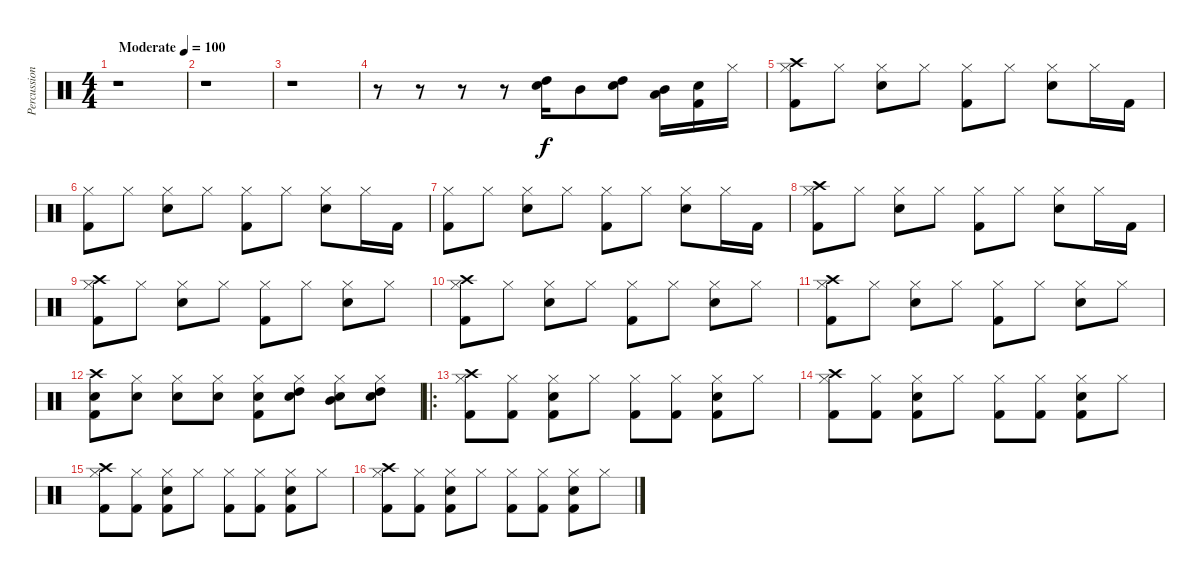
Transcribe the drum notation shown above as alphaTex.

\track ("Percussion" "Percussion") {instrument percussion}
\staff {score}
\articulation defaults
\ts (4 4)
\tempo (100 "Moderate")
\clef neutral
\ks c
r.1{dy f} |
r.1 |
r.1 |
r.8 r.8 r.8 r.8 ("High Tom (hit)" "Snare (hit) 2").16 "Mid Tom (hit)".8 ("High Tom (hit)" "Snare (hit) 2").8 ("Mid Tom (hit)" "Low Floor Tom (hit)").16 ("Kick (hit) 2" "Snare (hit) 2").16 "Hi-Hat (closed)".16 |
("Kick (hit) 2" "Hi-Hat (closed)" "Crash high (hit)").8 "Hi-Hat (closed)".8 ("Snare (hit) 2" "Hi-Hat (closed)").8 "Hi-Hat (closed)".8 ("Kick (hit) 2" "Hi-Hat (closed)").8 "Hi-Hat (closed)".8 ("Snare (hit) 2" "Hi-Hat (closed)").8 "Hi-Hat (closed)".16 "Kick (hit) 2".16 |
("Kick (hit) 2" "Hi-Hat (closed)").8 "Hi-Hat (closed)".8 ("Snare (hit) 2" "Hi-Hat (closed)").8 "Hi-Hat (closed)".8 ("Kick (hit) 2" "Hi-Hat (closed)").8 "Hi-Hat (closed)".8 ("Snare (hit) 2" "Hi-Hat (closed)").8 "Hi-Hat (closed)".16 "Kick (hit) 2".16 |
("Kick (hit) 2" "Hi-Hat (closed)").8 "Hi-Hat (closed)".8 ("Snare (hit) 2" "Hi-Hat (closed)").8 "Hi-Hat (closed)".8 ("Kick (hit) 2" "Hi-Hat (closed)").8 "Hi-Hat (closed)".8 ("Snare (hit) 2" "Hi-Hat (closed)").8 "Hi-Hat (closed)".16 "Kick (hit) 2".16 |
("Kick (hit) 2" "Hi-Hat (closed)" "Crash high (hit)").8 "Hi-Hat (closed)".8 ("Snare (hit) 2" "Hi-Hat (closed)").8 "Hi-Hat (closed)".8 ("Kick (hit) 2" "Hi-Hat (closed)").8 "Hi-Hat (closed)".8 ("Snare (hit) 2" "Hi-Hat (closed)").8 "Hi-Hat (closed)".16 "Kick (hit) 2".16 |
("Kick (hit) 2" "Hi-Hat (closed)" "Crash high (hit)").8 "Hi-Hat (closed)".8 ("Snare (hit) 2" "Hi-Hat (closed)").8 "Hi-Hat (closed)".8 ("Kick (hit) 2" "Hi-Hat (closed)").8 "Hi-Hat (closed)".8 ("Snare (hit) 2" "Hi-Hat (closed)").8 "Hi-Hat (closed)".8 |
("Kick (hit) 2" "Hi-Hat (closed)" "Crash high (hit)").8 "Hi-Hat (closed)".8 ("Snare (hit) 2" "Hi-Hat (closed)").8 "Hi-Hat (closed)".8 ("Kick (hit) 2" "Hi-Hat (closed)").8 "Hi-Hat (closed)".8 ("Snare (hit) 2" "Hi-Hat (closed)").8 "Hi-Hat (closed)".8 |
("Kick (hit) 2" "Hi-Hat (closed)" "Crash high (hit)").8 "Hi-Hat (closed)".8 ("Snare (hit) 2" "Hi-Hat (closed)").8 "Hi-Hat (closed)".8 ("Kick (hit) 2" "Hi-Hat (closed)").8 "Hi-Hat (closed)".8 ("Snare (hit) 2" "Hi-Hat (closed)").8 "Hi-Hat (closed)".8 |
("Kick (hit) 2" "Snare (hit) 2" "Crash high (hit)").8 ("Snare (hit) 2" "Hi-Hat (closed)").8 ("Snare (hit) 2" "Hi-Hat (closed)").8 ("Snare (hit) 2" "Hi-Hat (closed)").8 ("Kick (hit) 2" "Snare (hit) 2" "Hi-Hat (closed)").8 ("High Tom (hit)" "Snare (hit) 2" "Hi-Hat (closed)").8 ("Mid Tom (hit)" "Snare (hit) 2" "Hi-Hat (closed)").8 ("High Tom (hit)" "Snare (hit) 2" "Hi-Hat (closed)").8 |
\ro
("Kick (hit) 2" "Hi-Hat (closed)" "Crash high (hit)").8 ("Kick (hit) 2" "Hi-Hat (closed)").8 ("Kick (hit) 2" "Snare (hit) 2" "Hi-Hat (closed)").8 "Hi-Hat (closed)".8 ("Kick (hit) 2" "Hi-Hat (closed)").8 ("Kick (hit) 2" "Hi-Hat (closed)").8 ("Kick (hit) 2" "Snare (hit) 2" "Hi-Hat (closed)").8 "Hi-Hat (closed)".8 |
("Kick (hit) 2" "Hi-Hat (closed)" "Crash high (hit)").8 ("Kick (hit) 2" "Hi-Hat (closed)").8 ("Kick (hit) 2" "Snare (hit) 2" "Hi-Hat (closed)").8 "Hi-Hat (closed)".8 ("Kick (hit) 2" "Hi-Hat (closed)").8 ("Kick (hit) 2" "Hi-Hat (closed)").8 ("Kick (hit) 2" "Snare (hit) 2" "Hi-Hat (closed)").8 "Hi-Hat (closed)".8 |
("Kick (hit) 2" "Hi-Hat (closed)" "Crash high (hit)").8 ("Kick (hit) 2" "Hi-Hat (closed)").8 ("Kick (hit) 2" "Snare (hit) 2" "Hi-Hat (closed)").8 "Hi-Hat (closed)".8 ("Kick (hit) 2" "Hi-Hat (closed)").8 ("Kick (hit) 2" "Hi-Hat (closed)").8 ("Kick (hit) 2" "Snare (hit) 2" "Hi-Hat (closed)").8 "Hi-Hat (closed)".8 |
("Kick (hit) 2" "Hi-Hat (closed)" "Crash high (hit)").8 ("Kick (hit) 2" "Hi-Hat (closed)").8 ("Kick (hit) 2" "Snare (hit) 2" "Hi-Hat (closed)").8 "Hi-Hat (closed)".8 ("Kick (hit) 2" "Hi-Hat (closed)").8 ("Kick (hit) 2" "Hi-Hat (closed)").8 ("Kick (hit) 2" "Snare (hit) 2" "Hi-Hat (closed)").8 "Hi-Hat (closed)".8
